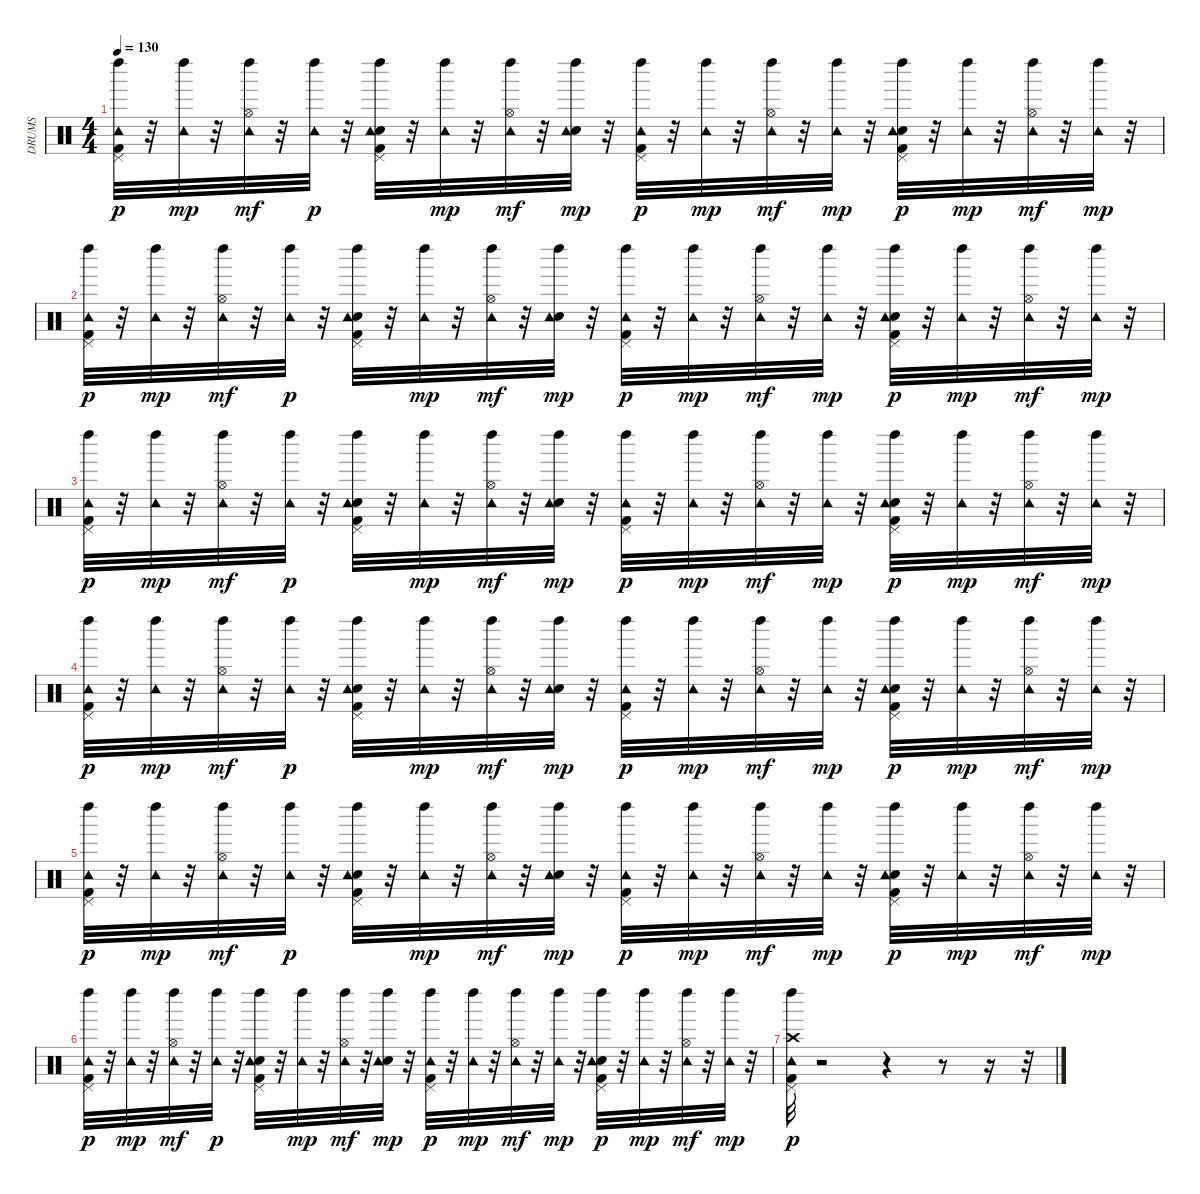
\track ("DRUMS" "DRUMS") {instrument percussion}
\staff {score}
\articulation defaults
\ts (4 4)
\tempo 130
\clef neutral
\ks c
("Kick (hit) 2" "Pedal Hi-Hat (hit)" "Left Maraca (hit)" "Tambourine (hit)").32{dy p} r.32 ("Left Maraca (hit)" "Tambourine (hit)").32{dy mp} r.32 ("Hi-Hat (open)" "Left Maraca (hit)" "Tambourine (hit)").32{dy mf} r.32 ("Left Maraca (hit)" "Tambourine (hit)").32{dy p} r.32 ("Kick (hit) 2" "Electric Snare (hit)" "Pedal Hi-Hat (hit)" "Left Maraca (hit)" "Tambourine (hit)").32 r.32 ("Left Maraca (hit)" "Tambourine (hit)").32{dy mp} r.32 ("Hi-Hat (open)" "Left Maraca (hit)" "Tambourine (hit)").32{dy mf} r.32 ("Electric Snare (hit)" "Left Maraca (hit)" "Tambourine (hit)").32{dy mp} r.32 ("Kick (hit) 2" "Pedal Hi-Hat (hit)" "Left Maraca (hit)" "Tambourine (hit)").32{dy p} r.32 ("Left Maraca (hit)" "Tambourine (hit)").32{dy mp} r.32 ("Hi-Hat (open)" "Left Maraca (hit)" "Tambourine (hit)").32{dy mf} r.32 ("Left Maraca (hit)" "Tambourine (hit)").32{dy mp} r.32 ("Kick (hit) 2" "Electric Snare (hit)" "Pedal Hi-Hat (hit)" "Left Maraca (hit)" "Tambourine (hit)").32{dy p} r.32 ("Left Maraca (hit)" "Tambourine (hit)").32{dy mp} r.32 ("Hi-Hat (open)" "Left Maraca (hit)" "Tambourine (hit)").32{dy mf} r.32 ("Left Maraca (hit)" "Tambourine (hit)").32{dy mp} r.32 |
("Kick (hit) 2" "Pedal Hi-Hat (hit)" "Left Maraca (hit)" "Tambourine (hit)").32{dy p} r.32 ("Left Maraca (hit)" "Tambourine (hit)").32{dy mp} r.32 ("Hi-Hat (open)" "Left Maraca (hit)" "Tambourine (hit)").32{dy mf} r.32 ("Left Maraca (hit)" "Tambourine (hit)").32{dy p} r.32 ("Kick (hit) 2" "Electric Snare (hit)" "Pedal Hi-Hat (hit)" "Left Maraca (hit)" "Tambourine (hit)").32 r.32 ("Left Maraca (hit)" "Tambourine (hit)").32{dy mp} r.32 ("Hi-Hat (open)" "Left Maraca (hit)" "Tambourine (hit)").32{dy mf} r.32 ("Electric Snare (hit)" "Left Maraca (hit)" "Tambourine (hit)").32{dy mp} r.32 ("Kick (hit) 2" "Pedal Hi-Hat (hit)" "Left Maraca (hit)" "Tambourine (hit)").32{dy p} r.32 ("Left Maraca (hit)" "Tambourine (hit)").32{dy mp} r.32 ("Hi-Hat (open)" "Left Maraca (hit)" "Tambourine (hit)").32{dy mf} r.32 ("Left Maraca (hit)" "Tambourine (hit)").32{dy mp} r.32 ("Kick (hit) 2" "Electric Snare (hit)" "Pedal Hi-Hat (hit)" "Left Maraca (hit)" "Tambourine (hit)").32{dy p} r.32 ("Left Maraca (hit)" "Tambourine (hit)").32{dy mp} r.32 ("Hi-Hat (open)" "Left Maraca (hit)" "Tambourine (hit)").32{dy mf} r.32 ("Left Maraca (hit)" "Tambourine (hit)").32{dy mp} r.32 |
("Kick (hit) 2" "Pedal Hi-Hat (hit)" "Left Maraca (hit)" "Tambourine (hit)").32{dy p} r.32 ("Left Maraca (hit)" "Tambourine (hit)").32{dy mp} r.32 ("Hi-Hat (open)" "Left Maraca (hit)" "Tambourine (hit)").32{dy mf} r.32 ("Left Maraca (hit)" "Tambourine (hit)").32{dy p} r.32 ("Kick (hit) 2" "Electric Snare (hit)" "Pedal Hi-Hat (hit)" "Left Maraca (hit)" "Tambourine (hit)").32 r.32 ("Left Maraca (hit)" "Tambourine (hit)").32{dy mp} r.32 ("Hi-Hat (open)" "Left Maraca (hit)" "Tambourine (hit)").32{dy mf} r.32 ("Electric Snare (hit)" "Left Maraca (hit)" "Tambourine (hit)").32{dy mp} r.32 ("Kick (hit) 2" "Pedal Hi-Hat (hit)" "Left Maraca (hit)" "Tambourine (hit)").32{dy p} r.32 ("Left Maraca (hit)" "Tambourine (hit)").32{dy mp} r.32 ("Hi-Hat (open)" "Left Maraca (hit)" "Tambourine (hit)").32{dy mf} r.32 ("Left Maraca (hit)" "Tambourine (hit)").32{dy mp} r.32 ("Kick (hit) 2" "Electric Snare (hit)" "Pedal Hi-Hat (hit)" "Left Maraca (hit)" "Tambourine (hit)").32{dy p} r.32 ("Left Maraca (hit)" "Tambourine (hit)").32{dy mp} r.32 ("Hi-Hat (open)" "Left Maraca (hit)" "Tambourine (hit)").32{dy mf} r.32 ("Left Maraca (hit)" "Tambourine (hit)").32{dy mp} r.32 |
("Kick (hit) 2" "Pedal Hi-Hat (hit)" "Left Maraca (hit)" "Tambourine (hit)").32{dy p} r.32 ("Left Maraca (hit)" "Tambourine (hit)").32{dy mp} r.32 ("Hi-Hat (open)" "Left Maraca (hit)" "Tambourine (hit)").32{dy mf} r.32 ("Left Maraca (hit)" "Tambourine (hit)").32{dy p} r.32 ("Kick (hit) 2" "Electric Snare (hit)" "Pedal Hi-Hat (hit)" "Left Maraca (hit)" "Tambourine (hit)").32 r.32 ("Left Maraca (hit)" "Tambourine (hit)").32{dy mp} r.32 ("Hi-Hat (open)" "Left Maraca (hit)" "Tambourine (hit)").32{dy mf} r.32 ("Electric Snare (hit)" "Left Maraca (hit)" "Tambourine (hit)").32{dy mp} r.32 ("Kick (hit) 2" "Pedal Hi-Hat (hit)" "Left Maraca (hit)" "Tambourine (hit)").32{dy p} r.32 ("Left Maraca (hit)" "Tambourine (hit)").32{dy mp} r.32 ("Hi-Hat (open)" "Left Maraca (hit)" "Tambourine (hit)").32{dy mf} r.32 ("Left Maraca (hit)" "Tambourine (hit)").32{dy mp} r.32 ("Kick (hit) 2" "Electric Snare (hit)" "Pedal Hi-Hat (hit)" "Left Maraca (hit)" "Tambourine (hit)").32{dy p} r.32 ("Left Maraca (hit)" "Tambourine (hit)").32{dy mp} r.32 ("Hi-Hat (open)" "Left Maraca (hit)" "Tambourine (hit)").32{dy mf} r.32 ("Left Maraca (hit)" "Tambourine (hit)").32{dy mp} r.32 |
("Kick (hit) 2" "Pedal Hi-Hat (hit)" "Left Maraca (hit)" "Tambourine (hit)").32{dy p} r.32 ("Left Maraca (hit)" "Tambourine (hit)").32{dy mp} r.32 ("Hi-Hat (open)" "Left Maraca (hit)" "Tambourine (hit)").32{dy mf} r.32 ("Left Maraca (hit)" "Tambourine (hit)").32{dy p} r.32 ("Kick (hit) 2" "Electric Snare (hit)" "Pedal Hi-Hat (hit)" "Left Maraca (hit)" "Tambourine (hit)").32 r.32 ("Left Maraca (hit)" "Tambourine (hit)").32{dy mp} r.32 ("Hi-Hat (open)" "Left Maraca (hit)" "Tambourine (hit)").32{dy mf} r.32 ("Electric Snare (hit)" "Left Maraca (hit)" "Tambourine (hit)").32{dy mp} r.32 ("Kick (hit) 2" "Pedal Hi-Hat (hit)" "Left Maraca (hit)" "Tambourine (hit)").32{dy p} r.32 ("Left Maraca (hit)" "Tambourine (hit)").32{dy mp} r.32 ("Hi-Hat (open)" "Left Maraca (hit)" "Tambourine (hit)").32{dy mf} r.32 ("Left Maraca (hit)" "Tambourine (hit)").32{dy mp} r.32 ("Kick (hit) 2" "Electric Snare (hit)" "Pedal Hi-Hat (hit)" "Left Maraca (hit)" "Tambourine (hit)").32{dy p} r.32 ("Left Maraca (hit)" "Tambourine (hit)").32{dy mp} r.32 ("Hi-Hat (open)" "Left Maraca (hit)" "Tambourine (hit)").32{dy mf} r.32 ("Left Maraca (hit)" "Tambourine (hit)").32{dy mp} r.32 |
("Kick (hit) 2" "Pedal Hi-Hat (hit)" "Left Maraca (hit)" "Tambourine (hit)").32{dy p} r.32 ("Left Maraca (hit)" "Tambourine (hit)").32{dy mp} r.32 ("Hi-Hat (open)" "Left Maraca (hit)" "Tambourine (hit)").32{dy mf} r.32 ("Left Maraca (hit)" "Tambourine (hit)").32{dy p} r.32 ("Kick (hit) 2" "Electric Snare (hit)" "Pedal Hi-Hat (hit)" "Left Maraca (hit)" "Tambourine (hit)").32 r.32 ("Left Maraca (hit)" "Tambourine (hit)").32{dy mp} r.32 ("Hi-Hat (open)" "Left Maraca (hit)" "Tambourine (hit)").32{dy mf} r.32 ("Electric Snare (hit)" "Left Maraca (hit)" "Tambourine (hit)").32{dy mp} r.32 ("Kick (hit) 2" "Pedal Hi-Hat (hit)" "Left Maraca (hit)" "Tambourine (hit)").32{dy p} r.32 ("Left Maraca (hit)" "Tambourine (hit)").32{dy mp} r.32 ("Hi-Hat (open)" "Left Maraca (hit)" "Tambourine (hit)").32{dy mf} r.32 ("Left Maraca (hit)" "Tambourine (hit)").32{dy mp} r.32 ("Kick (hit) 2" "Electric Snare (hit)" "Pedal Hi-Hat (hit)" "Left Maraca (hit)" "Tambourine (hit)").32{dy p} r.32 ("Left Maraca (hit)" "Tambourine (hit)").32{dy mp} r.32 ("Hi-Hat (open)" "Left Maraca (hit)" "Tambourine (hit)").32{dy mf} r.32 ("Left Maraca (hit)" "Tambourine (hit)").32{dy mp} r.32 |
("Kick (hit) 2" "Pedal Hi-Hat (hit)" "Left Maraca (hit)" "Crash high (hit)" "Tambourine (hit)").32{dy p} r.2 r.4 r.8 r.16 r.32
